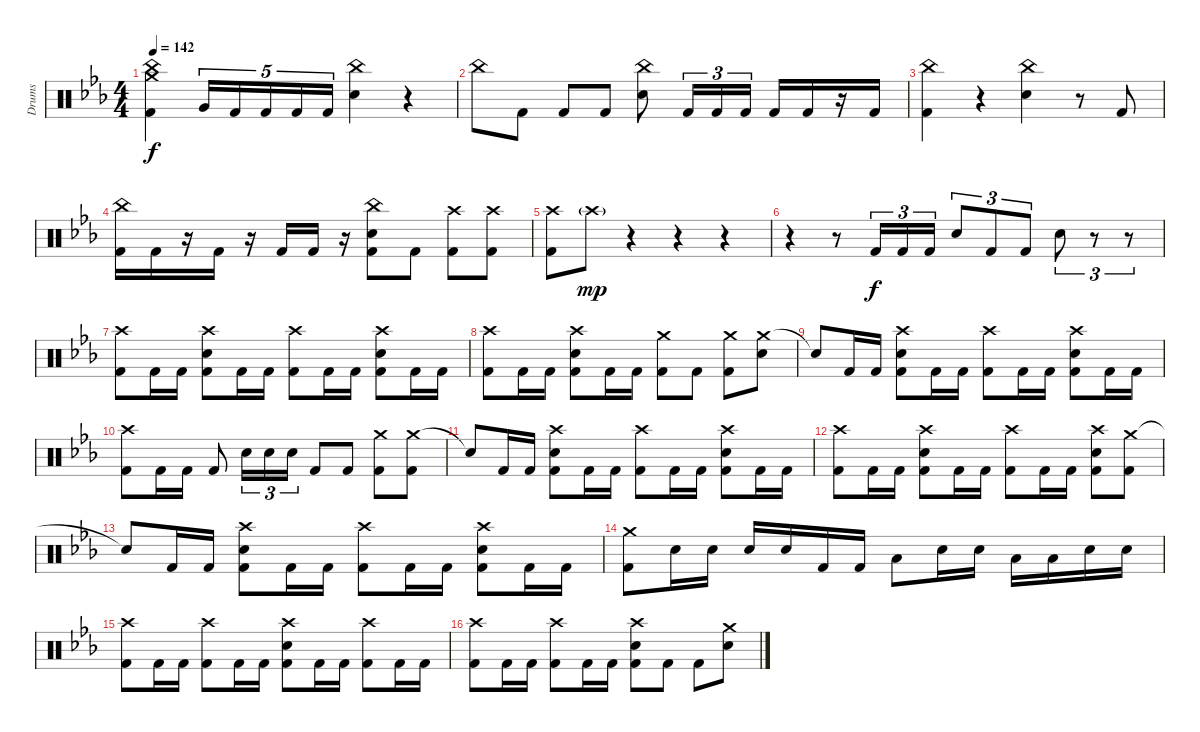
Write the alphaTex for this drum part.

\track ("Drums" "Drums") {instrument percussion}
\staff {score}
\articulation defaults
\ts (4 4)
\tempo 142
\clef neutral
\ks cminor
("Crash medium (hit)" "China (hit)" "Kick (hit) 2").4{dy f} "Very Low Tom (hit)".16{tu (5 4)} "Kick (hit) 2".16{tu (5 4)} "Kick (hit) 2".16{tu (5 4)} "Kick (hit) 2".16{tu (5 4)} "Kick (hit) 2".16{tu (5 4)} ("China (hit)" "Electric Snare (hit)").4 r.4 |
"China (hit)".8 "Kick (hit) 2".8 "Kick (hit) 2".8 "Kick (hit) 2".8 ("China (hit)" "Electric Snare (hit)").8 "Kick (hit) 2".16{tu (3 2)} "Kick (hit) 2".16{tu (3 2)} "Kick (hit) 2".16{tu (3 2)} "Kick (hit) 2".16 "Kick (hit) 2".16 r.16 "Kick (hit) 2".16 |
("China (hit)" "Kick (hit) 2").4 r.4 ("China (hit)" "Electric Snare (hit)").4 r.8 "Kick (hit) 2".8 |
("China (hit)" "Kick (hit) 2").16 "Kick (hit) 2".16 r.16 "Kick (hit) 2".16 r.16 "Kick (hit) 2".16 "Kick (hit) 2".16 r.16 ("China (hit)" "Electric Snare (hit)" "Kick (hit) 2").8 "Kick (hit) 2".8 ("Crash high (hit)" "Kick (hit) 2").8 ("Crash high (hit)" "Kick (hit) 2").8 |
("Crash high (hit)" "Kick (hit) 2").8 "Crash high (hit)"{g}.8{dy mp} r.4 r.4 r.4 |
r.4 r.8 "Kick (hit) 2".16{tu (3 2) dy f} "Kick (hit) 2".16{tu (3 2)} "Kick (hit) 2".16{tu (3 2)} "Electric Snare (hit)".8{tu (3 2)} "Kick (hit) 2".8{tu (3 2)} "Kick (hit) 2".8{tu (3 2)} "Electric Snare (hit)".8{tu (3 2)} r.8{tu (3 2)} r.8{tu (3 2)} |
("Crash high (hit)" "Kick (hit) 2").8 "Kick (hit) 2".16 "Kick (hit) 2".16 ("Crash high (hit)" "Electric Snare (hit)" "Kick (hit) 2").8 "Kick (hit) 2".16 "Kick (hit) 2".16 ("Crash high (hit)" "Kick (hit) 2").8 "Kick (hit) 2".16 "Kick (hit) 2".16 ("Crash high (hit)" "Electric Snare (hit)" "Kick (hit) 2").8 "Kick (hit) 2".16 "Kick (hit) 2".16 |
("Crash high (hit)" "Kick (hit) 2").8 "Kick (hit) 2".16 "Kick (hit) 2".16 ("Crash high (hit)" "Electric Snare (hit)" "Kick (hit) 2").8 "Kick (hit) 2".16 "Kick (hit) 2".16 ("Crash medium (hit)" "Kick (hit) 2").8 "Kick (hit) 2".8 ("Crash medium (hit)" "Kick (hit) 2").8 ("Crash medium (hit)" "Electric Snare (hit)").8 |
"Snare (hit)"{t}.8 "Kick (hit) 2".16 "Kick (hit) 2".16 ("Crash high (hit)" "Electric Snare (hit)" "Kick (hit) 2").8 "Kick (hit) 2".16 "Kick (hit) 2".16 ("Crash high (hit)" "Kick (hit) 2").8 "Kick (hit) 2".16 "Kick (hit) 2".16 ("Crash high (hit)" "Electric Snare (hit)" "Kick (hit) 2").8 "Kick (hit) 2".16 "Kick (hit) 2".16 |
("Crash high (hit)" "Kick (hit) 2").8 "Kick (hit) 2".16 "Kick (hit) 2".16 "Kick (hit) 2".8 "Electric Snare (hit)".16{tu (3 2)} "Electric Snare (hit)".16{tu (3 2)} "Electric Snare (hit)".16{tu (3 2)} "Kick (hit) 2".8 "Kick (hit) 2".8 ("Crash medium (hit)" "Kick (hit) 2").8 ("Crash medium (hit)" "Kick (hit) 2").8 |
"Snare (hit)"{t}.8 "Kick (hit) 2".16 "Kick (hit) 2".16 ("Crash high (hit)" "Electric Snare (hit)" "Kick (hit) 2").8 "Kick (hit) 2".16 "Kick (hit) 2".16 ("Crash high (hit)" "Kick (hit) 2").8 "Kick (hit) 2".16 "Kick (hit) 2".16 ("Crash high (hit)" "Electric Snare (hit)" "Kick (hit) 2").8 "Kick (hit) 2".16 "Kick (hit) 2".16 |
("Crash high (hit)" "Kick (hit) 2").8 "Kick (hit) 2".16 "Kick (hit) 2".16 ("Crash high (hit)" "Electric Snare (hit)" "Kick (hit) 2").8 "Kick (hit) 2".16 "Kick (hit) 2".16 ("Crash high (hit)" "Kick (hit) 2").8 "Kick (hit) 2".16 "Kick (hit) 2".16 ("Crash high (hit)" "Electric Snare (hit)" "Kick (hit) 2").8 ("Crash medium (hit)" "Kick (hit) 2").8 |
"Snare (hit)"{t}.8 "Kick (hit) 2".16 "Kick (hit) 2".16 ("Crash high (hit)" "Electric Snare (hit)" "Kick (hit) 2").8 "Kick (hit) 2".16 "Kick (hit) 2".16 ("Crash high (hit)" "Kick (hit) 2").8 "Kick (hit) 2".16 "Kick (hit) 2".16 ("Crash high (hit)" "Electric Snare (hit)" "Kick (hit) 2").8 "Kick (hit) 2".16 "Kick (hit) 2".16 |
("Crash medium (hit)" "Kick (hit) 2").8 "Electric Snare (hit)".16 "Electric Snare (hit)".16 "Electric Snare (hit)".16 "Electric Snare (hit)".16 "Kick (hit) 2".16 "Kick (hit) 2".16 "Low Tom (hit)".8 "Electric Snare (hit)".16 "Electric Snare (hit)".16 "Low Tom (hit)".16 "Low Tom (hit)".16 "Electric Snare (hit)".16 "Electric Snare (hit)".16 |
("Crash high (hit)" "Kick (hit) 2").8 "Kick (hit) 2".16 "Kick (hit) 2".16 ("Crash high (hit)" "Kick (hit) 2").8 "Kick (hit) 2".16 "Kick (hit) 2".16 ("Crash high (hit)" "Electric Snare (hit)" "Kick (hit) 2").8 "Kick (hit) 2".16 "Kick (hit) 2".16 ("Crash high (hit)" "Kick (hit) 2").8 "Kick (hit) 2".16 "Kick (hit) 2".16 |
("Crash high (hit)" "Kick (hit) 2").8 "Kick (hit) 2".16 "Kick (hit) 2".16 ("Crash high (hit)" "Kick (hit) 2").8 "Kick (hit) 2".16 "Kick (hit) 2".16 ("Crash high (hit)" "Electric Snare (hit)" "Kick (hit) 2").8 "Kick (hit) 2".8 "Kick (hit) 2".8 ("Crash medium (hit)" "Electric Snare (hit)").8
